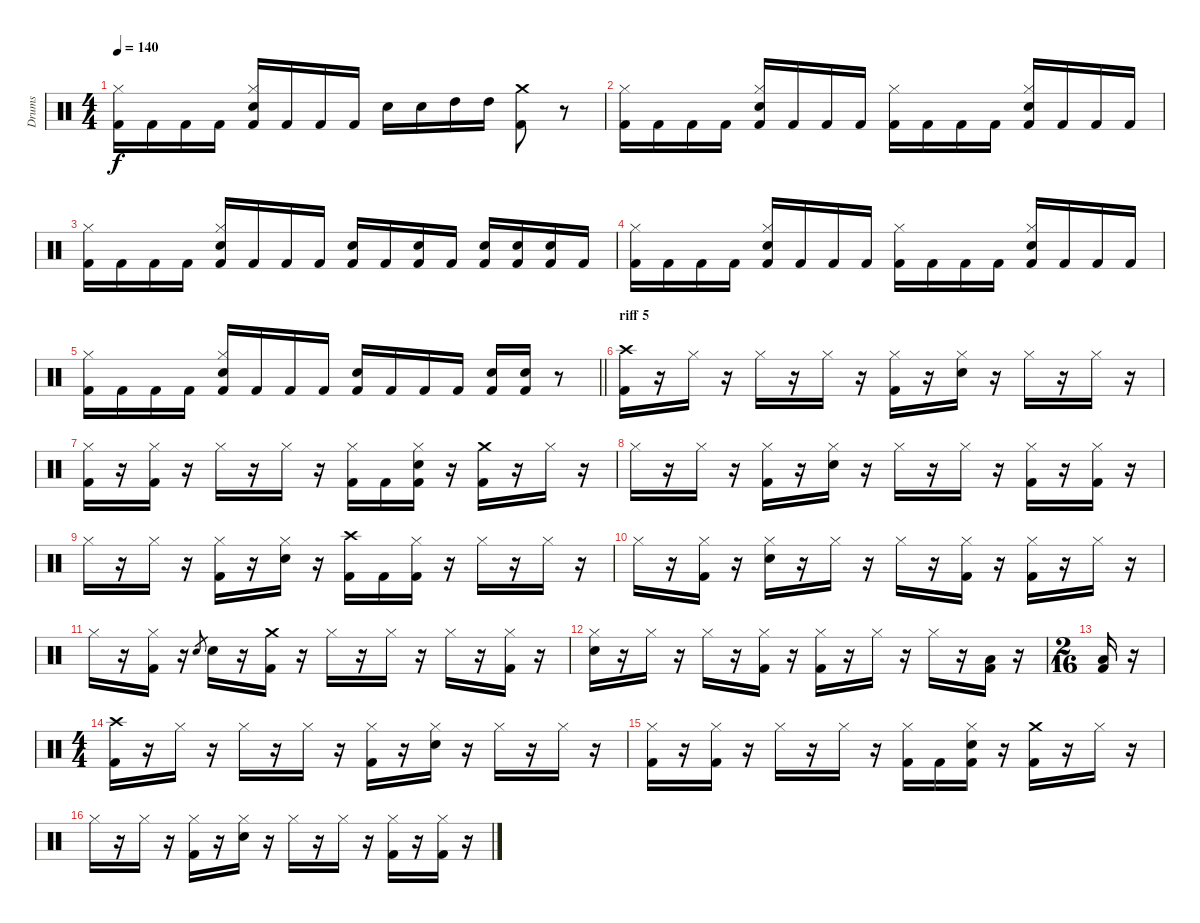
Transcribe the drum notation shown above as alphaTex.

\track ("Drums" "Drums") {instrument percussion}
\staff {score}
\articulation defaults
\ts (4 4)
\tempo 140
\clef neutral
\ks c
("Kick (hit) 2" "Hi-Hat (closed)").16{dy f} "Kick (hit) 2".16 "Kick (hit) 2".16 "Kick (hit) 2".16 ("Kick (hit) 2" "Snare (hit) 2" "Hi-Hat (closed)").16 "Kick (hit) 2".16 "Kick (hit) 2".16 "Kick (hit) 2".16 "Snare (hit) 2".16 "Snare (hit) 2".16 "High Tom (hit)".16 "High Tom (hit)".16 ("Kick (hit) 2" "Crash medium (hit)").8 r.8 |
("Kick (hit) 2" "Hi-Hat (closed)").16 "Kick (hit) 2".16 "Kick (hit) 2".16 "Kick (hit) 2".16 ("Kick (hit) 2" "Snare (hit) 2" "Hi-Hat (closed)").16 "Kick (hit) 2".16 "Kick (hit) 2".16 "Kick (hit) 2".16 ("Kick (hit) 2" "Hi-Hat (closed)").16 "Kick (hit) 2".16 "Kick (hit) 2".16 "Kick (hit) 2".16 ("Kick (hit) 2" "Snare (hit) 2" "Hi-Hat (closed)").16 "Kick (hit) 2".16 "Kick (hit) 2".16 "Kick (hit) 2".16 |
("Kick (hit) 2" "Hi-Hat (closed)").16 "Kick (hit) 2".16 "Kick (hit) 2".16 "Kick (hit) 2".16 ("Kick (hit) 2" "Snare (hit) 2" "Hi-Hat (closed)").16 "Kick (hit) 2".16 "Kick (hit) 2".16 "Kick (hit) 2".16 ("Kick (hit) 2" "Snare (hit) 2").16 "Kick (hit) 2".16 ("Kick (hit) 2" "Snare (hit) 2").16 "Kick (hit) 2".16 ("Kick (hit) 2" "Snare (hit) 2").16 ("Kick (hit) 2" "Snare (hit) 2").16 ("Kick (hit) 2" "Snare (hit) 2").16 "Kick (hit) 2".16 |
("Kick (hit) 2" "Hi-Hat (closed)").16 "Kick (hit) 2".16 "Kick (hit) 2".16 "Kick (hit) 2".16 ("Kick (hit) 2" "Snare (hit) 2" "Hi-Hat (closed)").16 "Kick (hit) 2".16 "Kick (hit) 2".16 "Kick (hit) 2".16 ("Kick (hit) 2" "Hi-Hat (closed)").16 "Kick (hit) 2".16 "Kick (hit) 2".16 "Kick (hit) 2".16 ("Kick (hit) 2" "Snare (hit) 2" "Hi-Hat (closed)").16 "Kick (hit) 2".16 "Kick (hit) 2".16 "Kick (hit) 2".16 |
\barLineRight lightlight
("Kick (hit) 2" "Hi-Hat (closed)").16 "Kick (hit) 2".16 "Kick (hit) 2".16 "Kick (hit) 2".16 ("Kick (hit) 2" "Snare (hit) 2" "Hi-Hat (closed)").16 "Kick (hit) 2".16 "Kick (hit) 2".16 "Kick (hit) 2".16 ("Kick (hit) 2" "Snare (hit) 2").16 "Kick (hit) 2".16 "Kick (hit) 2".16 "Kick (hit) 2".16 ("Kick (hit) 2" "Snare (hit) 2").16 ("Kick (hit) 2" "Snare (hit) 2").16 r.8 |
\section ("" "riff 5")
("Kick (hit) 2" "Crash high (hit)").16 r.16 "Hi-Hat (closed)".16 r.16 "Hi-Hat (closed)".16 r.16 "Hi-Hat (closed)".16 r.16 ("Kick (hit) 2" "Hi-Hat (closed)").16 r.16 ("Snare (hit) 2" "Hi-Hat (closed)").16 r.16 "Hi-Hat (closed)".16 r.16 "Hi-Hat (closed)".16 r.16 |
("Kick (hit) 2" "Hi-Hat (closed)").16 r.16 ("Kick (hit) 2" "Hi-Hat (closed)").16 r.16 "Hi-Hat (closed)".16 r.16 "Hi-Hat (closed)".16 r.16 ("Kick (hit) 2" "Hi-Hat (closed)").16 "Kick (hit) 2".16 ("Kick (hit) 2" "Snare (hit) 2" "Hi-Hat (closed)").16 r.16 ("Kick (hit) 2" "Crash medium (hit)").16 r.16 "Hi-Hat (closed)".16 r.16 |
"Hi-Hat (closed)".16 r.16 "Hi-Hat (closed)".16 r.16 ("Kick (hit) 2" "Hi-Hat (closed)").16 r.16 ("Snare (hit) 2" "Hi-Hat (closed)").16 r.16 "Hi-Hat (closed)".16 r.16 "Hi-Hat (closed)".16 r.16 ("Kick (hit) 2" "Hi-Hat (closed)").16 r.16 ("Kick (hit) 2" "Hi-Hat (closed)").16 r.16 |
"Hi-Hat (closed)".16 r.16 "Hi-Hat (closed)".16 r.16 ("Kick (hit) 2" "Hi-Hat (closed)").16 r.16 ("Snare (hit) 2" "Hi-Hat (closed)").16 r.16 ("Kick (hit) 2" "Crash high (hit)").16 "Kick (hit) 2".16 ("Kick (hit) 2" "Hi-Hat (closed)").16 r.16 "Hi-Hat (closed)".16 r.16 "Hi-Hat (closed)".16 r.16 |
"Hi-Hat (closed)".16 r.16 ("Kick (hit) 2" "Hi-Hat (closed)").16 r.16 ("Snare (hit) 2" "Hi-Hat (closed)").16 r.16 "Hi-Hat (closed)".16 r.16 "Hi-Hat (closed)".16 r.16 ("Kick (hit) 2" "Hi-Hat (closed)").16 r.16 ("Kick (hit) 2" "Hi-Hat (closed)").16 r.16 "Hi-Hat (closed)".16 r.16 |
"Hi-Hat (closed)".16 r.16 ("Kick (hit) 2" "Hi-Hat (closed)").16 r.16 "Snare (hit) 2".8{gr} "Snare (hit) 2".16 r.16 ("Kick (hit) 2" "Crash medium (hit)").16 r.16 "Hi-Hat (closed)".16 r.16 "Hi-Hat (closed)".16 r.16 "Hi-Hat (closed)".16 r.16 ("Kick (hit) 2" "Hi-Hat (closed)").16 r.16 |
("Snare (hit) 2" "Hi-Hat (closed)").16 r.16 "Hi-Hat (closed)".16 r.16 "Hi-Hat (closed)".16 r.16 ("Kick (hit) 2" "Hi-Hat (closed)").16 r.16 ("Kick (hit) 2" "Hi-Hat (closed)").16 r.16 "Hi-Hat (closed)".16 r.16 "Hi-Hat (closed)".16 r.16 ("Kick (hit) 2" "Low Floor Tom (hit)").16 r.16 |
\ts (2 16)
("Kick (hit) 2" "Low Floor Tom (hit)").16 r.16 |
\ts (4 4)
("Kick (hit) 2" "Crash high (hit)").16 r.16 "Hi-Hat (closed)".16 r.16 "Hi-Hat (closed)".16 r.16 "Hi-Hat (closed)".16 r.16 ("Kick (hit) 2" "Hi-Hat (closed)").16 r.16 ("Snare (hit) 2" "Hi-Hat (closed)").16 r.16 "Hi-Hat (closed)".16 r.16 "Hi-Hat (closed)".16 r.16 |
("Kick (hit) 2" "Hi-Hat (closed)").16 r.16 ("Kick (hit) 2" "Hi-Hat (closed)").16 r.16 "Hi-Hat (closed)".16 r.16 "Hi-Hat (closed)".16 r.16 ("Kick (hit) 2" "Hi-Hat (closed)").16 "Kick (hit) 2".16 ("Kick (hit) 2" "Snare (hit) 2" "Hi-Hat (closed)").16 r.16 ("Kick (hit) 2" "Crash medium (hit)").16 r.16 "Hi-Hat (closed)".16 r.16 |
"Hi-Hat (closed)".16 r.16 "Hi-Hat (closed)".16 r.16 ("Kick (hit) 2" "Hi-Hat (closed)").16 r.16 ("Snare (hit) 2" "Hi-Hat (closed)").16 r.16 "Hi-Hat (closed)".16 r.16 "Hi-Hat (closed)".16 r.16 ("Kick (hit) 2" "Hi-Hat (closed)").16 r.16 ("Kick (hit) 2" "Hi-Hat (closed)").16 r.16
